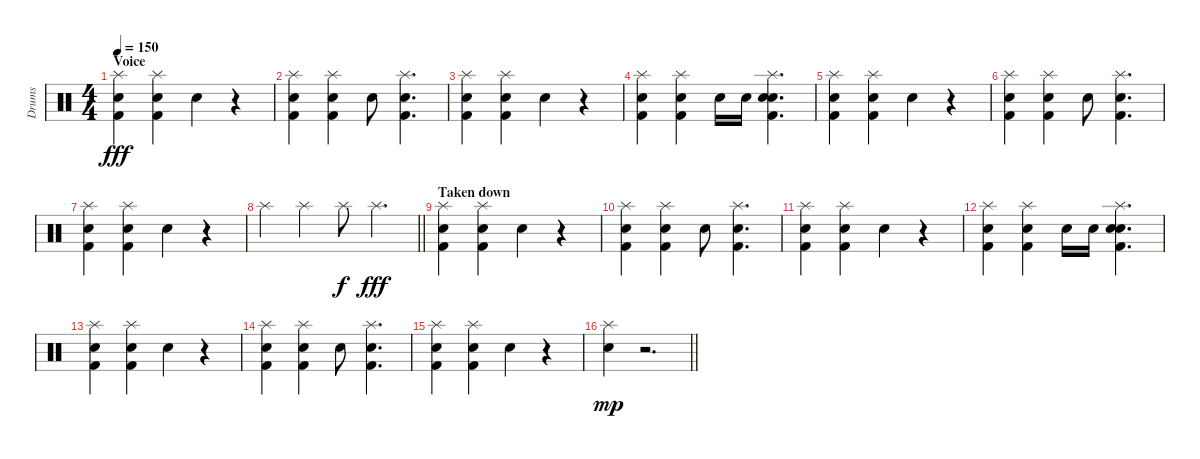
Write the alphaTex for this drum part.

\track ("Drums" "Drums") {instrument percussion}
\staff {score}
\articulation defaults
\ts (4 4)
\section ("" "Voice")
\tempo 150
\clef neutral
\ks c
("Splash (hit)" "Electric Snare (hit)" "Kick (hit) 2").4{dy fff} ("Splash (hit)" "Electric Snare (hit)" "Kick (hit) 2").4 "Hand Clap (hit)".4 r.4 |
("Splash (hit)" "Electric Snare (hit)" "Kick (hit) 2").4 ("Splash (hit)" "Electric Snare (hit)" "Kick (hit) 2").4 "Hand Clap (hit)".8 ("Splash (hit)" "Electric Snare (hit)" "Kick (hit) 2").4{d} |
("Splash (hit)" "Electric Snare (hit)" "Kick (hit) 2").4 ("Splash (hit)" "Electric Snare (hit)" "Kick (hit) 2").4 "Hand Clap (hit)".4 r.4 |
("Splash (hit)" "Electric Snare (hit)" "Kick (hit) 2").4 ("Splash (hit)" "Electric Snare (hit)" "Kick (hit) 2").4 "Hand Clap (hit)".16 "Hand Clap (hit)".16 ("Splash (hit)" "Electric Snare (hit)" "Hand Clap (hit)" "Kick (hit) 2").4{d} |
("Splash (hit)" "Electric Snare (hit)" "Kick (hit) 2").4 ("Splash (hit)" "Electric Snare (hit)" "Kick (hit) 2").4 "Hand Clap (hit)".4 r.4 |
("Splash (hit)" "Electric Snare (hit)" "Kick (hit) 2").4 ("Splash (hit)" "Electric Snare (hit)" "Kick (hit) 2").4 "Hand Clap (hit)".8 ("Splash (hit)" "Electric Snare (hit)" "Kick (hit) 2").4{d} |
("Splash (hit)" "Electric Snare (hit)" "Kick (hit) 2").4 ("Splash (hit)" "Electric Snare (hit)" "Kick (hit) 2").4 "Hand Clap (hit)".4 r.4 |
\barLineRight lightlight "Splash (hit)".4 "Splash (hit)".4 "Splash (hit)".8{dy f} "Splash (hit)".4{d dy fff}
|
\section ("" "Taken down")
("Splash (hit)" "Electric Snare (hit)" "Kick (hit) 2").4 ("Splash (hit)" "Electric Snare (hit)" "Kick (hit) 2").4 "Hand Clap (hit)".4 r.4 |
("Splash (hit)" "Electric Snare (hit)" "Kick (hit) 2").4 ("Splash (hit)" "Electric Snare (hit)" "Kick (hit) 2").4 "Hand Clap (hit)".8 ("Splash (hit)" "Electric Snare (hit)" "Kick (hit) 2").4{d} |
("Splash (hit)" "Electric Snare (hit)" "Kick (hit) 2").4 ("Splash (hit)" "Electric Snare (hit)" "Kick (hit) 2").4 "Hand Clap (hit)".4 r.4 |
("Splash (hit)" "Electric Snare (hit)" "Kick (hit) 2").4 ("Splash (hit)" "Electric Snare (hit)" "Kick (hit) 2").4 "Hand Clap (hit)".16 "Hand Clap (hit)".16 ("Splash (hit)" "Electric Snare (hit)" "Hand Clap (hit)" "Kick (hit) 2").4{d} |
("Splash (hit)" "Electric Snare (hit)" "Kick (hit) 2").4 ("Splash (hit)" "Electric Snare (hit)" "Kick (hit) 2").4 "Hand Clap (hit)".4 r.4 |
("Splash (hit)" "Electric Snare (hit)" "Kick (hit) 2").4 ("Splash (hit)" "Electric Snare (hit)" "Kick (hit) 2").4 "Hand Clap (hit)".8 ("Splash (hit)" "Electric Snare (hit)" "Kick (hit) 2").4{d} |
("Splash (hit)" "Electric Snare (hit)" "Kick (hit) 2").4 ("Splash (hit)" "Electric Snare (hit)" "Kick (hit) 2").4 "Hand Clap (hit)".4 r.4 |
\barLineRight lightlight
("Splash (hit)" "Electric Snare (hit)").4{dy mp} r.2{d}
